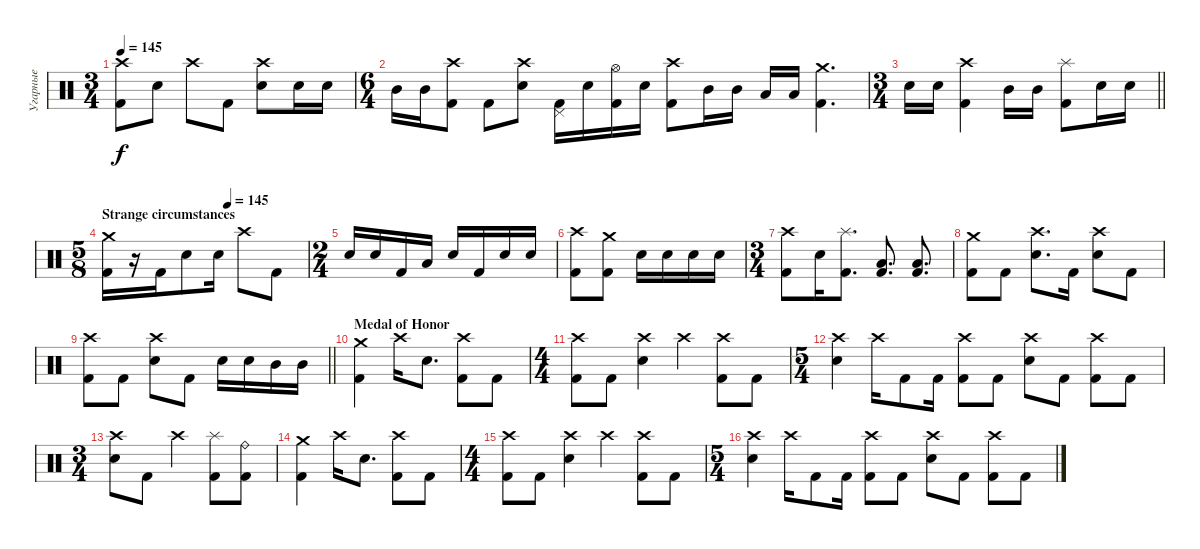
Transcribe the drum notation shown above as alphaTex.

\track ("Угарные" "Угарные") {instrument percussion}
\staff {score}
\articulation defaults
\ts (3 4)
\tempo 145
\clef neutral
\ks c
("Crash high (hit)" "Kick (hit) 2").8{dy f} "Electric Snare (hit)".8 "Crash high (hit)".8 "Kick (hit) 2".8 ("Crash high (hit)" "Electric Snare (hit)").8 "Electric Snare (hit)".16 "Electric Snare (hit)".16 |
\ts (6 4)
"Mid Tom (hit)".16 "Mid Tom (hit)".16 ("Kick (hit) 2" "Crash high (hit)").8 "Kick (hit) 2".8 ("Electric Snare (hit)" "Crash high (hit)").8 ("Kick (hit) 2" "Pedal Hi-Hat (hit)").16 "Electric Snare (hit)".16 ("Kick (hit) 2" "Hi-Hat (open)").16 "Electric Snare (hit)".16 ("Kick (hit) 2" "Crash high (hit)").8 "Mid Tom (hit)".16 "Mid Tom (hit)".16 "Low Tom (hit)".16 "Low Tom (hit)".16 ("Kick (hit) 2" "Crash medium (hit)").4{d} |
\ts (3 4)
\barLineRight lightlight "Electric Snare (hit)".16 "Electric Snare (hit)".16
("Kick (hit) 2" "Crash high (hit)").4 "Mid Tom (hit)".16 "Mid Tom (hit)".16 ("Kick (hit) 2" "Splash (hit)").8 "Electric Snare (hit)".16 "Electric Snare (hit)".16 |
\ts (5 8)
\section ("" "Strange circumstances")
\tempo (145 0.6)
("Kick (hit) 2" "Crash medium (hit)").16 r.16 "Kick (hit) 2".16 "Electric Snare (hit)".8 "Electric Snare (hit)".16 "Crash high (hit)".8 "Kick (hit) 2".8 |
\ts (2 4)
"Electric Snare (hit)".16 "Electric Snare (hit)".16 "Kick (hit) 2".16 "Low Floor Tom (hit)".16 "Electric Snare (hit)".16 "Kick (hit) 2".16 "Electric Snare (hit)".16 "Electric Snare (hit)".16 |
("Kick (hit) 2" "Crash high (hit)").8 ("Kick (hit) 2" "Crash medium (hit)").8 "Electric Snare (hit)".16 "Electric Snare (hit)".16 "Electric Snare (hit)".16 "Electric Snare (hit)".16 |
\ts (3 4)
("Kick (hit) 2" "Crash high (hit)").8 "Electric Snare (hit)".16 ("Kick (hit) 2" "Splash (hit)").8{d} ("Low Floor Tom (hit)" "Kick (hit) 2").8{d} ("Low Floor Tom (hit)" "Kick (hit) 2").8{d} |
("Kick (hit) 2" "Crash medium (hit)").8 "Kick (hit) 2".8 ("Electric Snare (hit)" "Crash high (hit)").8{d} "Kick (hit) 2".16 ("Electric Snare (hit)" "Crash high (hit)").8 "Kick (hit) 2".8 |
\barLineRight lightlight
("Kick (hit) 2" "Crash high (hit)").8 "Kick (hit) 2".8 ("Electric Snare (hit)" "Crash high (hit)").8 "Kick (hit) 2".8 "Electric Snare (hit)".16 "Electric Snare (hit)".16 "Mid Tom (hit)".16 "Mid Tom (hit)".16 |
\section ("" "Medal of Honor")
("Kick (hit) 2" "Crash medium (hit)").4 "Crash high (hit)".16 "Electric Snare (hit)".8{d} ("Kick (hit) 2" "Crash high (hit)").8 "Kick (hit) 2".8 |
\ts (4 4)
("Kick (hit) 2" "Crash high (hit)").8 "Kick (hit) 2".8 ("Electric Snare (hit)" "Crash high (hit)").4 "Crash high (hit)".4 ("Crash high (hit)" "Kick (hit) 2").8 "Kick (hit) 2".8 |
\ts (5 4)
("Electric Snare (hit)" "Crash high (hit)").4 "Crash high (hit)".16 "Kick (hit) 2".8 "Kick (hit) 2".16 ("Kick (hit) 2" "Crash high (hit)").8 "Kick (hit) 2".8 ("Electric Snare (hit)" "Crash high (hit)").8 "Kick (hit) 2".8 ("Crash high (hit)" "Kick (hit) 2").8 "Kick (hit) 2".8 |
\ts (3 4)
("Electric Snare (hit)" "Crash high (hit)").8 "Kick (hit) 2".8 "Crash high (hit)".4 ("Kick (hit) 2" "Splash (hit)").8 ("Kick (hit) 2" "Ride (bell)").8 |
("Kick (hit) 2" "Crash medium (hit)").4 "Crash high (hit)".16 "Electric Snare (hit)".8{d} ("Kick (hit) 2" "Crash high (hit)").8 "Kick (hit) 2".8 |
\ts (4 4)
("Kick (hit) 2" "Crash high (hit)").8 "Kick (hit) 2".8 ("Electric Snare (hit)" "Crash high (hit)").4 "Crash high (hit)".4 ("Crash high (hit)" "Kick (hit) 2").8 "Kick (hit) 2".8 |
\ts (5 4)
("Electric Snare (hit)" "Crash high (hit)").4 "Crash high (hit)".16 "Kick (hit) 2".8 "Kick (hit) 2".16 ("Kick (hit) 2" "Crash high (hit)").8 "Kick (hit) 2".8 ("Electric Snare (hit)" "Crash high (hit)").8 "Kick (hit) 2".8 ("Crash high (hit)" "Kick (hit) 2").8 "Kick (hit) 2".8
